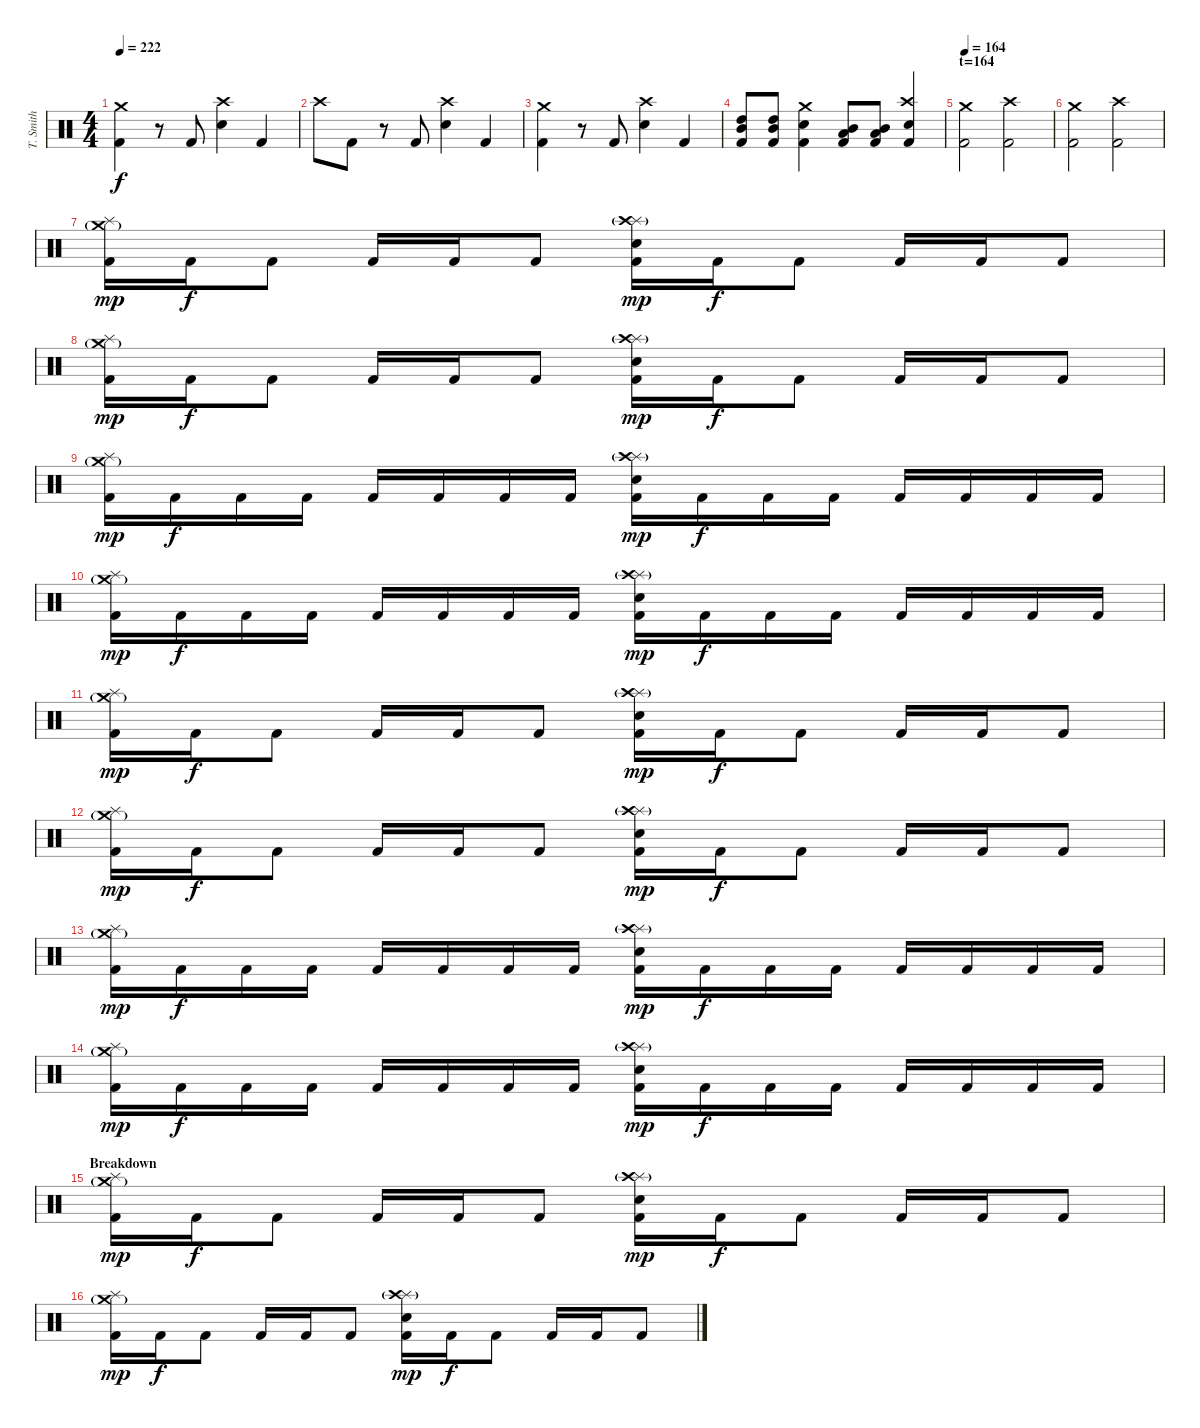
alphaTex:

\track ("T. Smith" "T. Smith") {instrument percussion}
\staff {score}
\articulation defaults
\ts (4 4)
\tempo 222
\clef neutral
\ks c
("Crash medium (hit)" "Kick (hit) 2").4{dy f} r.8 "Kick (hit) 2".8 ("Crash high (hit)" "Electric Snare (hit)").4 "Kick (hit) 2".4 |
"Crash high (hit)".8 "Kick (hit) 2".8 r.8 "Kick (hit) 2".8 ("Crash high (hit)" "Electric Snare (hit)").4 "Kick (hit) 2".4 |
("Crash medium (hit)" "Kick (hit) 2").4 r.8 "Kick (hit) 2".8 ("Crash high (hit)" "Electric Snare (hit)").4 "Kick (hit) 2".4 |
("Mid Tom (hit)" "High Tom (hit)" "Kick (hit) 2").8 ("Mid Tom (hit)" "High Tom (hit)" "Kick (hit) 2").8 ("Crash medium (hit)" "Electric Snare (hit)" "Kick (hit) 2").4 ("Mid Tom (hit)" "Low Tom (hit)" "Kick (hit) 2").8 ("Mid Tom (hit)" "Low Tom (hit)" "Kick (hit) 2").8 ("Crash high (hit)" "Electric Snare (hit)" "Kick (hit) 2").4 |
\section ("" "t=164")
\tempo 164
("Crash medium (hit)" "Kick (hit) 2").2 ("Crash high (hit)" "Kick (hit) 2").2 |
("Crash medium (hit)" "Kick (hit) 2").2 ("Crash high (hit)" "Kick (hit) 2").2 |
("Splash (hit)" "Crash medium (hit)"{g} "Kick (hit) 2").16{dy mp} "Kick (hit) 2".16{dy f} "Kick (hit) 2".8 "Kick (hit) 2".16 "Kick (hit) 2".16 "Kick (hit) 2".8 ("Splash (hit)" "Crash high (hit)"{g} "Electric Snare (hit)" "Kick (hit) 2").16{dy mp} "Kick (hit) 2".16{dy f} "Kick (hit) 2".8 "Kick (hit) 2".16 "Kick (hit) 2".16 "Kick (hit) 2".8 |
("Splash (hit)" "Crash medium (hit)"{g} "Kick (hit) 2").16{dy mp} "Kick (hit) 2".16{dy f} "Kick (hit) 2".8 "Kick (hit) 2".16 "Kick (hit) 2".16 "Kick (hit) 2".8 ("Splash (hit)" "Crash high (hit)"{g} "Electric Snare (hit)" "Kick (hit) 2").16{dy mp} "Kick (hit) 2".16{dy f} "Kick (hit) 2".8 "Kick (hit) 2".16 "Kick (hit) 2".16 "Kick (hit) 2".8 |
("Splash (hit)" "Crash medium (hit)"{g} "Kick (hit) 2").16{dy mp} "Kick (hit) 2".16{dy f} "Kick (hit) 2".16 "Kick (hit) 2".16 "Kick (hit) 2".16 "Kick (hit) 2".16 "Kick (hit) 2".16 "Kick (hit) 2".16 ("Splash (hit)" "Crash high (hit)"{g} "Electric Snare (hit)" "Kick (hit) 2").16{dy mp} "Kick (hit) 2".16{dy f} "Kick (hit) 2".16 "Kick (hit) 2".16 "Kick (hit) 2".16 "Kick (hit) 2".16 "Kick (hit) 2".16 "Kick (hit) 2".16 |
("Splash (hit)" "Crash medium (hit)"{g} "Kick (hit) 2").16{dy mp} "Kick (hit) 2".16{dy f} "Kick (hit) 2".16 "Kick (hit) 2".16 "Kick (hit) 2".16 "Kick (hit) 2".16 "Kick (hit) 2".16 "Kick (hit) 2".16 ("Splash (hit)" "Crash high (hit)"{g} "Electric Snare (hit)" "Kick (hit) 2").16{dy mp} "Kick (hit) 2".16{dy f} "Kick (hit) 2".16 "Kick (hit) 2".16 "Kick (hit) 2".16 "Kick (hit) 2".16 "Kick (hit) 2".16 "Kick (hit) 2".16 |
("Splash (hit)" "Crash medium (hit)"{g} "Kick (hit) 2").16{dy mp} "Kick (hit) 2".16{dy f} "Kick (hit) 2".8 "Kick (hit) 2".16 "Kick (hit) 2".16 "Kick (hit) 2".8 ("Splash (hit)" "Crash high (hit)"{g} "Electric Snare (hit)" "Kick (hit) 2").16{dy mp} "Kick (hit) 2".16{dy f} "Kick (hit) 2".8 "Kick (hit) 2".16 "Kick (hit) 2".16 "Kick (hit) 2".8 |
("Splash (hit)" "Crash medium (hit)"{g} "Kick (hit) 2").16{dy mp} "Kick (hit) 2".16{dy f} "Kick (hit) 2".8 "Kick (hit) 2".16 "Kick (hit) 2".16 "Kick (hit) 2".8 ("Splash (hit)" "Crash high (hit)"{g} "Electric Snare (hit)" "Kick (hit) 2").16{dy mp} "Kick (hit) 2".16{dy f} "Kick (hit) 2".8 "Kick (hit) 2".16 "Kick (hit) 2".16 "Kick (hit) 2".8 |
("Splash (hit)" "Crash medium (hit)"{g} "Kick (hit) 2").16{dy mp} "Kick (hit) 2".16{dy f} "Kick (hit) 2".16 "Kick (hit) 2".16 "Kick (hit) 2".16 "Kick (hit) 2".16 "Kick (hit) 2".16 "Kick (hit) 2".16 ("Splash (hit)" "Crash high (hit)"{g} "Electric Snare (hit)" "Kick (hit) 2").16{dy mp} "Kick (hit) 2".16{dy f} "Kick (hit) 2".16 "Kick (hit) 2".16 "Kick (hit) 2".16 "Kick (hit) 2".16 "Kick (hit) 2".16 "Kick (hit) 2".16 |
("Splash (hit)" "Crash medium (hit)"{g} "Kick (hit) 2").16{dy mp} "Kick (hit) 2".16{dy f} "Kick (hit) 2".16 "Kick (hit) 2".16 "Kick (hit) 2".16 "Kick (hit) 2".16 "Kick (hit) 2".16 "Kick (hit) 2".16 ("Splash (hit)" "Crash high (hit)"{g} "Electric Snare (hit)" "Kick (hit) 2").16{dy mp} "Kick (hit) 2".16{dy f} "Kick (hit) 2".16 "Kick (hit) 2".16 "Kick (hit) 2".16 "Kick (hit) 2".16 "Kick (hit) 2".16 "Kick (hit) 2".16 |
\section ("" "Breakdown")
("Splash (hit)" "Crash medium (hit)"{g} "Kick (hit) 2").16{dy mp} "Kick (hit) 2".16{dy f} "Kick (hit) 2".8 "Kick (hit) 2".16 "Kick (hit) 2".16 "Kick (hit) 2".8 ("Splash (hit)" "Crash high (hit)"{g} "Electric Snare (hit)" "Kick (hit) 2").16{dy mp} "Kick (hit) 2".16{dy f} "Kick (hit) 2".8 "Kick (hit) 2".16 "Kick (hit) 2".16 "Kick (hit) 2".8 |
("Splash (hit)" "Crash medium (hit)"{g} "Kick (hit) 2").16{dy mp} "Kick (hit) 2".16{dy f} "Kick (hit) 2".8 "Kick (hit) 2".16 "Kick (hit) 2".16 "Kick (hit) 2".8 ("Splash (hit)" "Crash high (hit)"{g} "Electric Snare (hit)" "Kick (hit) 2").16{dy mp} "Kick (hit) 2".16{dy f} "Kick (hit) 2".8 "Kick (hit) 2".16 "Kick (hit) 2".16 "Kick (hit) 2".8
